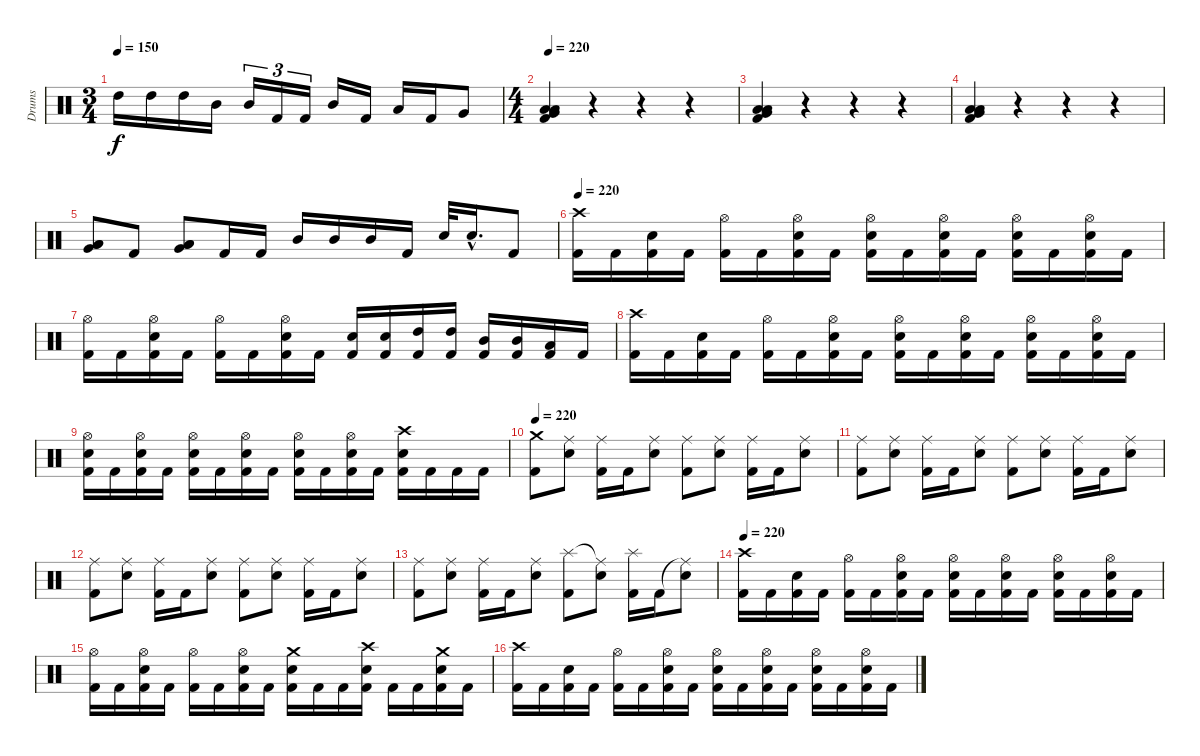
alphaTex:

\track ("Drums" "Drums") {instrument percussion}
\staff {score}
\articulation defaults
\ts (3 4)
\tempo 150
\clef neutral
\ks c "High Tom (hit)".16{dy f} "High Tom (hit)".16 "High Tom (hit)".16 "Mid Tom (hit)".16 "Mid Tom (hit)".16{tu (3 2)} "Kick (hit) 2".16{tu (3 2)} "Kick (hit) 2".16{tu (3 2)} "Mid Tom (hit)".16 "Kick (hit) 2".16 "Low Tom (hit)".16 "Kick (hit) 2".16 "Very Low Tom (hit)".8
|
\ts (4 4)
\tempo 220
("Low Tom (hit)" "Low Floor Tom (hit)" "Very Low Tom (hit)" "Kick (hit) 2").4 r.4 r.4 r.4 |
("Low Tom (hit)" "Low Floor Tom (hit)" "Very Low Tom (hit)" "Kick (hit) 2").4 r.4 r.4 r.4 |
("Low Tom (hit)" "Low Floor Tom (hit)" "Very Low Tom (hit)" "Kick (hit) 2").4 r.4 r.4 r.4 |
("Low Tom (hit)" "Low Floor Tom (hit)" "Very Low Tom (hit)").8 "Kick (hit) 2".8 ("Low Tom (hit)" "Low Floor Tom (hit)" "Very Low Tom (hit)").8 "Kick (hit) 2".16 "Kick (hit) 2".16 "Mid Tom (hit)".16 "Mid Tom (hit)".16 "Mid Tom (hit)".16 "Kick (hit) 2".16 "Electric Snare (hit)".32 "Electric Snare (hit)"{hac}.16{d} "Kick (hit) 2".8 |
\tempo 220
("Crash high (hit)" "Kick (hit) 2").16 "Kick (hit) 2".16 ("Electric Snare (hit)" "Kick (hit) 2").16 "Kick (hit) 2".16 ("Hi-Hat (open)" "Kick (hit) 2").16 "Kick (hit) 2".16 ("Hi-Hat (open)" "Electric Snare (hit)" "Kick (hit) 2").16 "Kick (hit) 2".16 ("Hi-Hat (open)" "Electric Snare (hit)" "Kick (hit) 2").16 "Kick (hit) 2".16 ("Hi-Hat (open)" "Electric Snare (hit)" "Kick (hit) 2").16 "Kick (hit) 2".16 ("Hi-Hat (open)" "Electric Snare (hit)" "Kick (hit) 2").16 "Kick (hit) 2".16 ("Hi-Hat (open)" "Electric Snare (hit)" "Kick (hit) 2").16 "Kick (hit) 2".16 |
("Hi-Hat (open)" "Kick (hit) 2").16 "Kick (hit) 2".16 ("Hi-Hat (open)" "Electric Snare (hit)" "Kick (hit) 2").16 "Kick (hit) 2".16 ("Hi-Hat (open)" "Kick (hit) 2").16 "Kick (hit) 2".16 ("Hi-Hat (open)" "Electric Snare (hit)" "Kick (hit) 2").16 "Kick (hit) 2".16 ("Electric Snare (hit)" "Kick (hit) 2").16 ("Electric Snare (hit)" "Kick (hit) 2").16 ("High Tom (hit)" "Kick (hit) 2").16 ("High Tom (hit)" "Kick (hit) 2").16 ("Mid Tom (hit)" "Kick (hit) 2").16 ("Mid Tom (hit)" "Kick (hit) 2").16 ("Low Tom (hit)" "Kick (hit) 2").16 "Kick (hit) 2".16 |
("Crash high (hit)" "Kick (hit) 2").16 "Kick (hit) 2".16 ("Electric Snare (hit)" "Kick (hit) 2").16 "Kick (hit) 2".16 ("Hi-Hat (open)" "Kick (hit) 2").16 "Kick (hit) 2".16 ("Hi-Hat (open)" "Electric Snare (hit)" "Kick (hit) 2").16 "Kick (hit) 2".16 ("Hi-Hat (open)" "Electric Snare (hit)" "Kick (hit) 2").16 "Kick (hit) 2".16 ("Hi-Hat (open)" "Electric Snare (hit)" "Kick (hit) 2").16 "Kick (hit) 2".16 ("Hi-Hat (open)" "Electric Snare (hit)" "Kick (hit) 2").16 "Kick (hit) 2".16 ("Hi-Hat (open)" "Electric Snare (hit)" "Kick (hit) 2").16 "Kick (hit) 2".16 |
("Hi-Hat (open)" "Electric Snare (hit)" "Kick (hit) 2").16 "Kick (hit) 2".16 ("Hi-Hat (open)" "Electric Snare (hit)" "Kick (hit) 2").16 "Kick (hit) 2".16 ("Hi-Hat (open)" "Electric Snare (hit)" "Kick (hit) 2").16 "Kick (hit) 2".16 ("Hi-Hat (open)" "Electric Snare (hit)" "Kick (hit) 2").16 "Kick (hit) 2".16 ("Hi-Hat (open)" "Electric Snare (hit)" "Kick (hit) 2").16 "Kick (hit) 2".16 ("Hi-Hat (open)" "Electric Snare (hit)" "Kick (hit) 2").16 "Kick (hit) 2".16 ("Crash high (hit)" "Electric Snare (hit)" "Kick (hit) 2").16 "Kick (hit) 2".16 "Kick (hit) 2".16 "Kick (hit) 2".16 |
\tempo 220
("Crash medium (hit)" "Kick (hit) 2").8 ("Ride (middle)" "Electric Snare (hit)").8 ("Ride (middle)" "Kick (hit) 2").16 "Kick (hit) 2".16 ("Ride (middle)" "Electric Snare (hit)").8 ("Ride (middle)" "Kick (hit) 2").8 ("Ride (middle)" "Electric Snare (hit)").8 ("Ride (middle)" "Kick (hit) 2").16 "Kick (hit) 2".16 ("Ride (middle)" "Electric Snare (hit)").8 |
("Ride (middle)" "Kick (hit) 2").8 ("Ride (middle)" "Electric Snare (hit)").8 ("Ride (middle)" "Kick (hit) 2").16 "Kick (hit) 2".16 ("Ride (middle)" "Electric Snare (hit)").8 ("Ride (middle)" "Kick (hit) 2").8 ("Ride (middle)" "Electric Snare (hit)").8 ("Ride (middle)" "Kick (hit) 2").16 "Kick (hit) 2".16 ("Ride (middle)" "Electric Snare (hit)").8 |
("Ride (middle)" "Kick (hit) 2").8 ("Ride (middle)" "Electric Snare (hit)").8 ("Ride (middle)" "Kick (hit) 2").16 "Kick (hit) 2".16 ("Ride (middle)" "Electric Snare (hit)").8 ("Ride (middle)" "Kick (hit) 2").8 ("Ride (middle)" "Electric Snare (hit)").8 ("Ride (middle)" "Kick (hit) 2").16 "Kick (hit) 2".16 ("Ride (middle)" "Electric Snare (hit)").8 |
("Ride (middle)" "Kick (hit) 2").8 ("Ride (middle)" "Electric Snare (hit)").8 ("Ride (middle)" "Kick (hit) 2").16 "Kick (hit) 2".16 ("Ride (middle)" "Electric Snare (hit)").8 ("Splash (hit)" "Kick (hit) 2").8 ("Ride (middle)"{t} "Electric Snare (hit)").8 ("Splash (hit)" "Kick (hit) 2").16 "Kick (hit) 2".16 ("Ride (middle)"{t} "Electric Snare (hit)").8 |
\tempo 220
("Crash high (hit)" "Kick (hit) 2").16 "Kick (hit) 2".16 ("Electric Snare (hit)" "Kick (hit) 2").16 "Kick (hit) 2".16 ("Hi-Hat (open)" "Kick (hit) 2").16 "Kick (hit) 2".16 ("Hi-Hat (open)" "Electric Snare (hit)" "Kick (hit) 2").16 "Kick (hit) 2".16 ("Hi-Hat (open)" "Electric Snare (hit)" "Kick (hit) 2").16 "Kick (hit) 2".16 ("Hi-Hat (open)" "Electric Snare (hit)" "Kick (hit) 2").16 "Kick (hit) 2".16 ("Hi-Hat (open)" "Electric Snare (hit)" "Kick (hit) 2").16 "Kick (hit) 2".16 ("Hi-Hat (open)" "Electric Snare (hit)" "Kick (hit) 2").16 "Kick (hit) 2".16 |
("Hi-Hat (open)" "Kick (hit) 2").16 "Kick (hit) 2".16 ("Hi-Hat (open)" "Electric Snare (hit)" "Kick (hit) 2").16 "Kick (hit) 2".16 ("Hi-Hat (open)" "Kick (hit) 2").16 "Kick (hit) 2".16 ("Hi-Hat (open)" "Electric Snare (hit)" "Kick (hit) 2").16 "Kick (hit) 2".16 ("Crash medium (hit)" "Electric Snare (hit)" "Kick (hit) 2").16 "Kick (hit) 2".16 "Kick (hit) 2".16 ("Crash high (hit)" "Electric Snare (hit)" "Kick (hit) 2").16 "Kick (hit) 2".16 "Kick (hit) 2".16 ("Crash medium (hit)" "Electric Snare (hit)" "Kick (hit) 2").16 "Kick (hit) 2".16 |
("Crash high (hit)" "Kick (hit) 2").16 "Kick (hit) 2".16 ("Electric Snare (hit)" "Kick (hit) 2").16 "Kick (hit) 2".16 ("Hi-Hat (open)" "Kick (hit) 2").16 "Kick (hit) 2".16 ("Hi-Hat (open)" "Electric Snare (hit)" "Kick (hit) 2").16 "Kick (hit) 2".16 ("Hi-Hat (open)" "Electric Snare (hit)" "Kick (hit) 2").16 "Kick (hit) 2".16 ("Hi-Hat (open)" "Electric Snare (hit)" "Kick (hit) 2").16 "Kick (hit) 2".16 ("Hi-Hat (open)" "Electric Snare (hit)" "Kick (hit) 2").16 "Kick (hit) 2".16 ("Hi-Hat (open)" "Electric Snare (hit)" "Kick (hit) 2").16 "Kick (hit) 2".16
